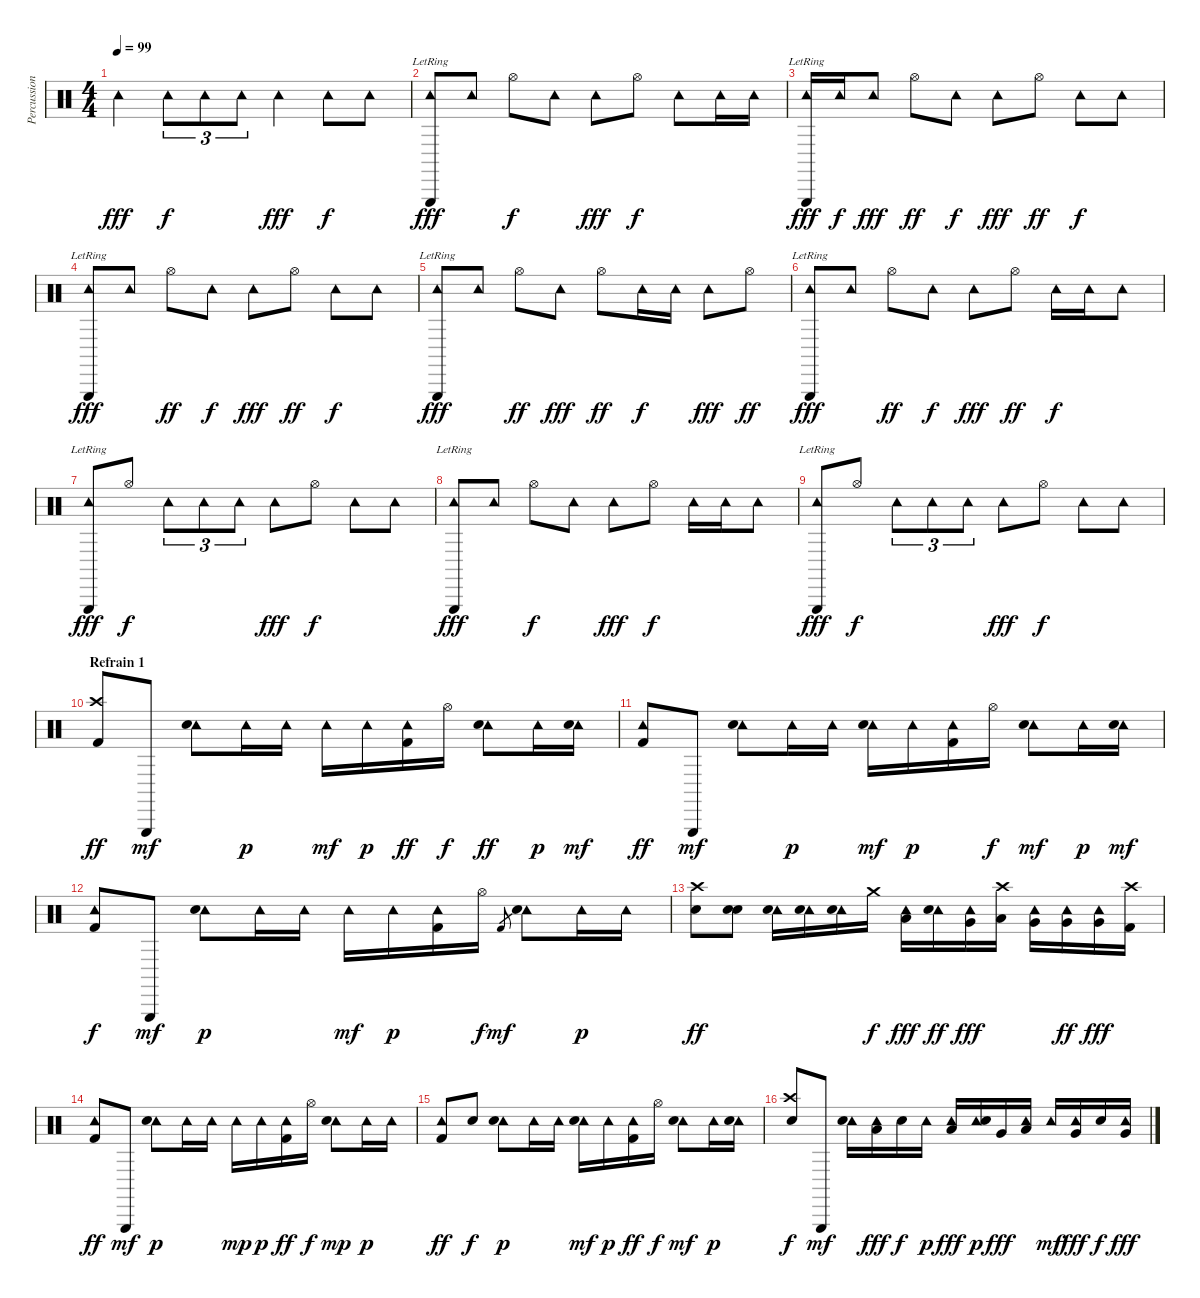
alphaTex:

\track ("Percussion" "Percussion") {instrument percussion}
\staff {score}
\articulation defaults
\ts (4 4)
\tempo 99
\clef neutral
\ks c "Tambourine (hit)".4{dy fff} "Tambourine (hit)".8{tu (3 2) dy f} "Tambourine (hit)".8{tu (3 2)} "Tambourine (hit)".8{tu (3 2)} "Tambourine (hit)".4{dy fff} "Tambourine (hit)".8{dy f} "Tambourine (hit)".8
|
("Tambourine (hit)" "Triangle (hit)"{lr}).8{dy fff} "Tambourine (hit)".8 "Hi-Hat (open)".8{dy f} "Tambourine (hit)".8 "Tambourine (hit)".8{dy fff} "Hi-Hat (open)".8{dy f} "Tambourine (hit)".8 "Tambourine (hit)".16 "Tambourine (hit)".16 |
("Tambourine (hit)" "Triangle (hit)"{lr}).16{dy fff} "Tambourine (hit)".16{dy f} "Tambourine (hit)".8{dy fff} "Hi-Hat (open)".8{dy ff} "Tambourine (hit)".8{dy f} "Tambourine (hit)".8{dy fff} "Hi-Hat (open)".8{dy ff} "Tambourine (hit)".8{dy f} "Tambourine (hit)".8 |
("Tambourine (hit)" "Triangle (hit)"{lr}).8{dy fff} "Tambourine (hit)".8 "Hi-Hat (open)".8{dy ff} "Tambourine (hit)".8{dy f} "Tambourine (hit)".8{dy fff} "Hi-Hat (open)".8{dy ff} "Tambourine (hit)".8{dy f} "Tambourine (hit)".8 |
("Tambourine (hit)" "Triangle (hit)"{lr}).8{dy fff} "Tambourine (hit)".8 "Hi-Hat (open)".8{dy ff} "Tambourine (hit)".8{dy fff} "Hi-Hat (open)".8{dy ff} "Tambourine (hit)".16{dy f} "Tambourine (hit)".16 "Tambourine (hit)".8{dy fff} "Hi-Hat (open)".8{dy ff} |
("Tambourine (hit)" "Triangle (hit)"{lr}).8{dy fff} "Tambourine (hit)".8 "Hi-Hat (open)".8{dy ff} "Tambourine (hit)".8{dy f} "Tambourine (hit)".8{dy fff} "Hi-Hat (open)".8{dy ff} "Tambourine (hit)".16{dy f} "Tambourine (hit)".16 "Tambourine (hit)".8 |
("Tambourine (hit)" "Triangle (hit)"{lr}).8{dy fff} "Hi-Hat (open)".8{dy f} "Tambourine (hit)".8{tu (3 2)} "Tambourine (hit)".8{tu (3 2)} "Tambourine (hit)".8{tu (3 2)} "Tambourine (hit)".8{dy fff} "Hi-Hat (open)".8{dy f} "Tambourine (hit)".8 "Tambourine (hit)".8 |
("Tambourine (hit)" "Triangle (hit)"{lr}).8{dy fff} "Tambourine (hit)".8 "Hi-Hat (open)".8{dy f} "Tambourine (hit)".8 "Tambourine (hit)".8{dy fff} "Hi-Hat (open)".8{dy f} "Tambourine (hit)".16 "Tambourine (hit)".16 "Tambourine (hit)".8 |
("Tambourine (hit)" "Triangle (hit)"{lr}).8{dy fff} "Hi-Hat (open)".8{dy f} "Tambourine (hit)".8{tu (3 2)} "Tambourine (hit)".8{tu (3 2)} "Tambourine (hit)".8{tu (3 2)} "Tambourine (hit)".8{dy fff} "Hi-Hat (open)".8{dy f} "Tambourine (hit)".8 "Tambourine (hit)".8 |
\section ("" "Refrain 1")
("Crash high (hit)" "Kick (hit) 2").8{dy ff volume 8} "Triangle (hit)".8{dy mf} ("Tambourine (hit)" "Snare (hit) 2").8 "Tambourine (hit)".16{dy p} "Tambourine (hit)".16 "Tambourine (hit)".16{dy mf} "Tambourine (hit)".16{dy p} ("Tambourine (hit)" "Kick (hit) 2").16{dy ff} "Hi-Hat (open)".16{dy f} ("Tambourine (hit)" "Snare (hit) 2").8{dy ff} "Tambourine (hit)".16{dy p} ("Tambourine (hit)" "Electric Snare (hit)").16{dy mf} |
("Tambourine (hit)" "Kick (hit) 2").8{dy ff} "Triangle (hit)".8{dy mf} ("Tambourine (hit)" "Snare (hit) 2").8 "Tambourine (hit)".16{dy p} "Tambourine (hit)".16 ("Tambourine (hit)" "Snare (hit) 2").16{dy mf} "Tambourine (hit)".16{dy p} ("Tambourine (hit)" "Kick (hit) 2").16 "Hi-Hat (open)".16{dy f} ("Tambourine (hit)" "Snare (hit) 2").8{dy mf} "Tambourine (hit)".16{dy p} ("Tambourine (hit)" "Electric Snare (hit)").16{dy mf} |
("Tambourine (hit)" "Kick (hit) 2").8{dy f} "Triangle (hit)".8{dy mf} ("Tambourine (hit)" "Snare (hit) 2").8{dy p} "Tambourine (hit)".16 "Tambourine (hit)".16 "Tambourine (hit)".16{dy mf} "Tambourine (hit)".16{dy p} ("Tambourine (hit)" "Kick (hit) 2").16 "Hi-Hat (open)".16{dy f} "Kick (hit) 2".8{gr dy mf} ("Tambourine (hit)" "Snare (hit) 2").8 "Tambourine (hit)".16{dy p} "Tambourine (hit)".16 |
("Crash high (hit)" "Snare (hit) 2").8{dy ff} ("Metronome (bell)" "Electric Snare (hit)").8 ("Tambourine (hit)" "Electric Snare (hit)").16 ("Tambourine (hit)" "Electric Snare (hit)").16 ("Tambourine (hit)" "Electric Snare (hit)").16 "Crash medium (hit)".16{dy f} ("Tambourine (hit)" "Low Tom (hit)").16{dy fff} ("Tambourine (hit)" "Electric Snare (hit)").16{dy ff} ("Tambourine (hit)" "Very Low Tom (hit)").16{dy fff} ("Crash high (hit)"{pm} "Low Tom (hit)").16 ("Tambourine (hit)" "Very Low Tom (hit)").16{volume 16} ("Tambourine (hit)" "Very Low Tom (hit)").16{dy ff} ("Tambourine (hit)" "Very Low Tom (hit)").16{dy fff} ("Crash high (hit)" "Kick (hit) 2").16 |
("Tambourine (hit)" "Kick (hit) 2").8{dy ff volume 9} "Triangle (hit)".8{dy mf} ("Tambourine (hit)" "Snare (hit) 2").8{dy p} "Tambourine (hit)".16 "Tambourine (hit)".16 "Tambourine (hit)".16{dy mp} "Tambourine (hit)".16{dy p} ("Tambourine (hit)" "Kick (hit) 2").16{dy ff} "Hi-Hat (open)".16{dy f} ("Tambourine (hit)" "Snare (hit) 2").8{dy mp} "Tambourine (hit)".16{dy p} "Tambourine (hit)".16 |
("Tambourine (hit)" "Kick (hit) 2").8{dy ff} "Metronome (bell)".8{dy f} ("Tambourine (hit)" "Snare (hit) 2").8{dy p} "Tambourine (hit)".16 "Tambourine (hit)".16 ("Tambourine (hit)" "Snare (hit) 2").16{dy mf} "Tambourine (hit)".16{dy p} ("Tambourine (hit)" "Kick (hit) 2").16{dy ff} "Hi-Hat (open)".16{dy f} ("Tambourine (hit)" "Snare (hit) 2").8{dy mf} "Tambourine (hit)".16{dy p} ("Tambourine (hit)" "Electric Snare (hit)").16 |
("Crash high (hit)" "Snare (hit) 2").8{dy f} "Triangle (hit)".8{dy mf} ("Tambourine (hit)" "Electric Snare (hit)").16 ("Tambourine (hit)" "Low Tom (hit)").16{dy fff} "Electric Snare (hit)".16{dy f} "Tambourine (hit)".16{dy p} ("Tambourine (hit)" "Low Tom (hit)").16{dy fff} ("Tambourine (hit)" "Electric Snare (hit)").16{dy p} "Very Low Tom (hit)".16{dy fff} ("Tambourine (hit)" "Low Tom (hit)").16 "Tambourine (hit)".16{dy mf} ("Tambourine (hit)" "Very Low Tom (hit)").16{dy fff} "Electric Snare (hit)".16{dy f} ("Tambourine (hit)" "Very Low Tom (hit)").16{dy fff}
